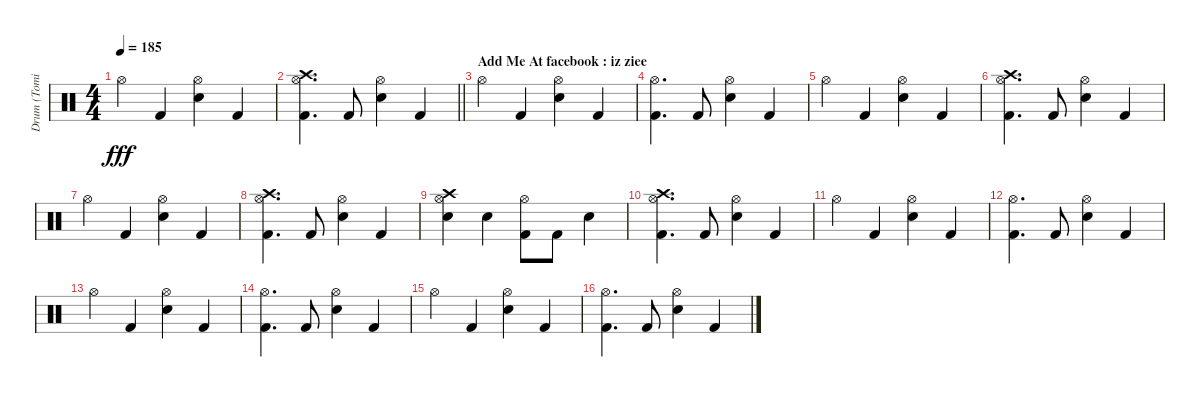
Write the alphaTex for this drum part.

\track ("Drum (Tomi)" "Drum (Tomi") {instrument percussion}
\staff {score}
\articulation defaults
\ts (4 4)
\tempo 185
\clef neutral
\ks c "Hi-Hat (open)".4{dy fff} "Kick (hit) 2".4
("Hi-Hat (open)" "Electric Snare (hit)").4 "Kick (hit) 2".4 |
\barLineRight lightlight
("Hi-Hat (open)" "Crash high (hit)" "Kick (hit) 2").4{d} "Kick (hit) 2".8 ("Hi-Hat (open)" "Electric Snare (hit)").4 "Kick (hit) 2".4 |
\section ("" "Add Me At facebook : iz ziee")
"Hi-Hat (open)".4 "Kick (hit) 2".4 ("Hi-Hat (open)" "Electric Snare (hit)").4 "Kick (hit) 2".4 |
("Kick (hit) 2" "Hi-Hat (open)").4{d} "Kick (hit) 2".8 ("Hi-Hat (open)" "Electric Snare (hit)").4 "Kick (hit) 2".4 |
"Hi-Hat (open)".4 "Kick (hit) 2".4 ("Hi-Hat (open)" "Electric Snare (hit)").4 "Kick (hit) 2".4 |
("Kick (hit) 2" "Hi-Hat (open)" "Crash high (hit)").4{d} "Kick (hit) 2".8 ("Hi-Hat (open)" "Electric Snare (hit)").4 "Kick (hit) 2".4 |
"Hi-Hat (open)".4 "Kick (hit) 2".4 ("Hi-Hat (open)" "Electric Snare (hit)").4 "Kick (hit) 2".4 |
("Hi-Hat (open)" "Crash high (hit)" "Kick (hit) 2").4{d} "Kick (hit) 2".8 ("Hi-Hat (open)" "Electric Snare (hit)").4 "Kick (hit) 2".4 |
("Hi-Hat (open)" "Crash high (hit)" "Electric Snare (hit)").4 "Electric Snare (hit)".4 ("Kick (hit) 2" "Hi-Hat (open)").8 "Kick (hit) 2".8 "Electric Snare (hit)".4 |
("Kick (hit) 2" "Hi-Hat (open)" "Crash high (hit)").4{d} "Kick (hit) 2".8 ("Hi-Hat (open)" "Electric Snare (hit)").4 "Kick (hit) 2".4 |
"Hi-Hat (open)".4 "Kick (hit) 2".4 ("Hi-Hat (open)" "Electric Snare (hit)").4 "Kick (hit) 2".4 |
("Hi-Hat (open)" "Kick (hit) 2").4{d} "Kick (hit) 2".8 ("Hi-Hat (open)" "Electric Snare (hit)").4 "Kick (hit) 2".4 |
"Hi-Hat (open)".4 "Kick (hit) 2".4 ("Hi-Hat (open)" "Electric Snare (hit)").4 "Kick (hit) 2".4 |
("Kick (hit) 2" "Hi-Hat (open)").4{d} "Kick (hit) 2".8 ("Hi-Hat (open)" "Electric Snare (hit)").4 "Kick (hit) 2".4 |
"Hi-Hat (open)".4 "Kick (hit) 2".4 ("Hi-Hat (open)" "Electric Snare (hit)").4 "Kick (hit) 2".4 |
("Hi-Hat (open)" "Kick (hit) 2").4{d} "Kick (hit) 2".8 ("Hi-Hat (open)" "Electric Snare (hit)").4 "Kick (hit) 2".4
